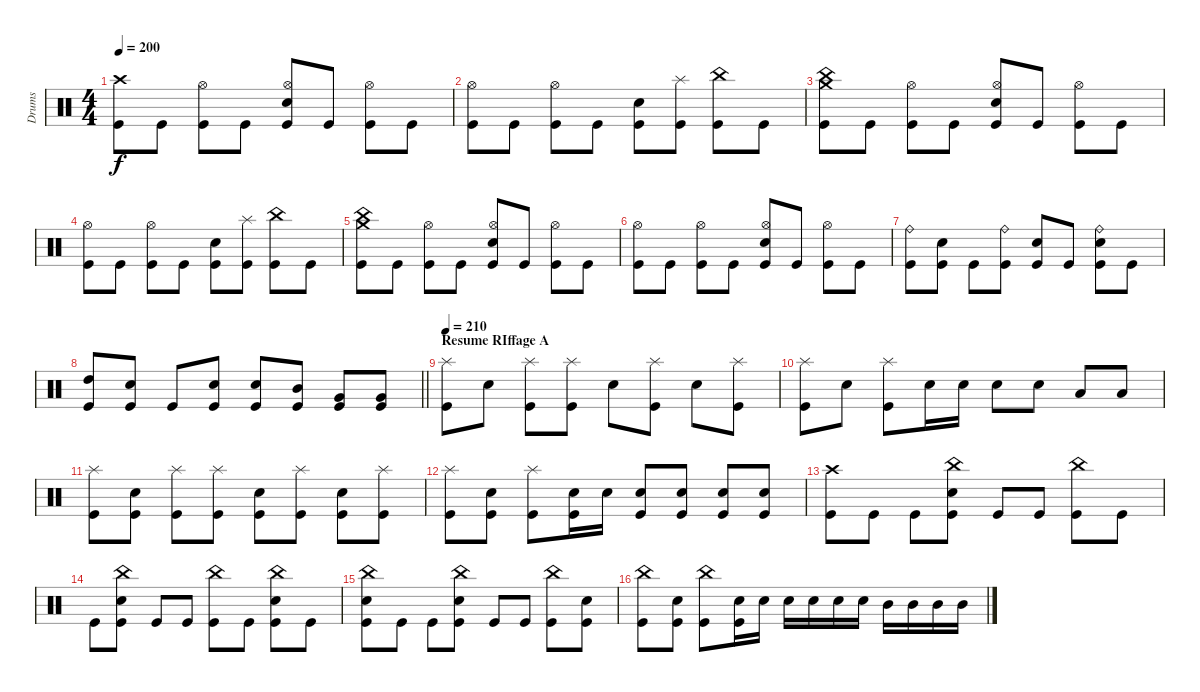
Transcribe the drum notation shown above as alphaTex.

\track ("Drums" "Drums") {instrument percussion}
\staff {score}
\articulation defaults
\ts (4 4)
\tempo 200
\clef neutral
\ks c
("Crash high (hit)" "Kick (hit)").8{dy f} "Kick (hit)".8 ("Hi-Hat (open)" "Kick (hit)").8 "Kick (hit)".8 ("Hi-Hat (open)" "Electric Snare (hit)" "Kick (hit)").8 "Kick (hit)".8 ("Hi-Hat (open)" "Kick (hit)").8 "Kick (hit)".8 |
("Hi-Hat (open)" "Kick (hit)").8 "Kick (hit)".8 ("Hi-Hat (open)" "Kick (hit)").8 "Kick (hit)".8 ("Electric Snare (hit)" "Kick (hit)").8 ("Splash (hit)" "Kick (hit)").8 ("China (hit)" "Kick (hit)").8 "Kick (hit)".8 |
("Crash medium (hit)" "China (hit)" "Kick (hit)").8 "Kick (hit)".8 ("Hi-Hat (open)" "Kick (hit)").8 "Kick (hit)".8 ("Hi-Hat (open)" "Electric Snare (hit)" "Kick (hit)").8 "Kick (hit)".8 ("Hi-Hat (open)" "Kick (hit)").8 "Kick (hit)".8 |
("Hi-Hat (open)" "Kick (hit)").8 "Kick (hit)".8 ("Hi-Hat (open)" "Kick (hit)").8 "Kick (hit)".8 ("Electric Snare (hit)" "Kick (hit)").8 ("Splash (hit)" "Kick (hit)").8 ("China (hit)" "Kick (hit)").8 "Kick (hit)".8 |
("Crash medium (hit)" "China (hit)" "Kick (hit)").8 "Kick (hit)".8 ("Hi-Hat (open)" "Kick (hit)").8 "Kick (hit)".8 ("Hi-Hat (open)" "Electric Snare (hit)" "Kick (hit)").8 "Kick (hit)".8 ("Hi-Hat (open)" "Kick (hit)").8 "Kick (hit)".8 |
("Hi-Hat (open)" "Kick (hit)").8 "Kick (hit)".8 ("Hi-Hat (open)" "Kick (hit)").8 "Kick (hit)".8 ("Hi-Hat (open)" "Electric Snare (hit)" "Kick (hit)").8 "Kick (hit)".8 ("Hi-Hat (open)" "Kick (hit)").8 "Kick (hit)".8 |
("Ride (bell)" "Kick (hit)").8 ("Electric Snare (hit)" "Kick (hit)").8 "Kick (hit)".8 ("Ride (bell)" "Kick (hit)").8 ("Electric Snare (hit)" "Kick (hit)").8 "Kick (hit)".8 ("Ride (bell)" "Electric Snare (hit)" "Kick (hit)").8 "Kick (hit)".8 |
\barLineRight lightlight
("High Tom (hit)" "Kick (hit)").8 ("Electric Snare (hit)" "Kick (hit)").8 "Kick (hit)".8 ("Electric Snare (hit)" "Kick (hit)").8 ("Electric Snare (hit)" "Kick (hit)").8 ("Mid Tom (hit)" "Kick (hit)").8 ("Very Low Tom (hit)" "Kick (hit)").8 ("Very Low Tom (hit)" "Kick (hit)").8 |
\section ("" "Resume RIffage A")
\tempo 210
("Splash (hit)" "Kick (hit)").8 "Electric Snare (hit)".8 ("Splash (hit)" "Kick (hit)").8 ("Splash (hit)" "Kick (hit)").8 "Electric Snare (hit)".8 ("Splash (hit)" "Kick (hit)").8 "Electric Snare (hit)".8 ("Splash (hit)" "Kick (hit)").8 |
("Splash (hit)" "Kick (hit)").8 "Electric Snare (hit)".8 ("Splash (hit)" "Kick (hit)").8 "Electric Snare (hit)".16 "Electric Snare (hit)".16 "Electric Snare (hit)".8 "Electric Snare (hit)".8 "Low Tom (hit)".8 "Low Tom (hit)".8 |
("Splash (hit)" "Kick (hit)").8 ("Electric Snare (hit)" "Kick (hit)").8 ("Splash (hit)" "Kick (hit)").8 ("Splash (hit)" "Kick (hit)").8 ("Electric Snare (hit)" "Kick (hit)").8 ("Splash (hit)" "Kick (hit)").8 ("Electric Snare (hit)" "Kick (hit)").8 ("Splash (hit)" "Kick (hit)").8 |
("Splash (hit)" "Kick (hit)").8 ("Electric Snare (hit)" "Kick (hit)").8 ("Splash (hit)" "Kick (hit)").8 ("Electric Snare (hit)" "Kick (hit)").16 "Electric Snare (hit)".16 ("Electric Snare (hit)" "Kick (hit)").8 ("Electric Snare (hit)" "Kick (hit)").8 ("Electric Snare (hit)" "Kick (hit)").8 ("Electric Snare (hit)" "Kick (hit)").8 |
("Crash high (hit)" "Kick (hit)").8 "Kick (hit)".8 "Kick (hit)".8 ("China (hit)" "Electric Snare (hit)" "Kick (hit)").8 "Kick (hit)".8 "Kick (hit)".8 ("China (hit)" "Kick (hit)").8 "Kick (hit)".8 |
"Kick (hit)".8 ("China (hit)" "Electric Snare (hit)" "Kick (hit)").8 "Kick (hit)".8 "Kick (hit)".8 ("China (hit)" "Kick (hit)").8 "Kick (hit)".8 ("China (hit)" "Electric Snare (hit)" "Kick (hit)").8 "Kick (hit)".8 |
("China (hit)" "Electric Snare (hit)" "Kick (hit)").8 "Kick (hit)".8 "Kick (hit)".8 ("China (hit)" "Electric Snare (hit)" "Kick (hit)").8 "Kick (hit)".8 "Kick (hit)".8 ("China (hit)" "Kick (hit)").8 ("Electric Snare (hit)" "Kick (hit)").8 |
("China (hit)" "Kick (hit)").8 ("Electric Snare (hit)" "Kick (hit)").8 ("China (hit)" "Kick (hit)").8 ("Electric Snare (hit)" "Kick (hit)").16 "Electric Snare (hit)".16 "Electric Snare (hit)".16 "Electric Snare (hit)".16 "Electric Snare (hit)".16 "Electric Snare (hit)".16 "Mid Tom (hit)".16 "Mid Tom (hit)".16 "Mid Tom (hit)".16 "Mid Tom (hit)".16
